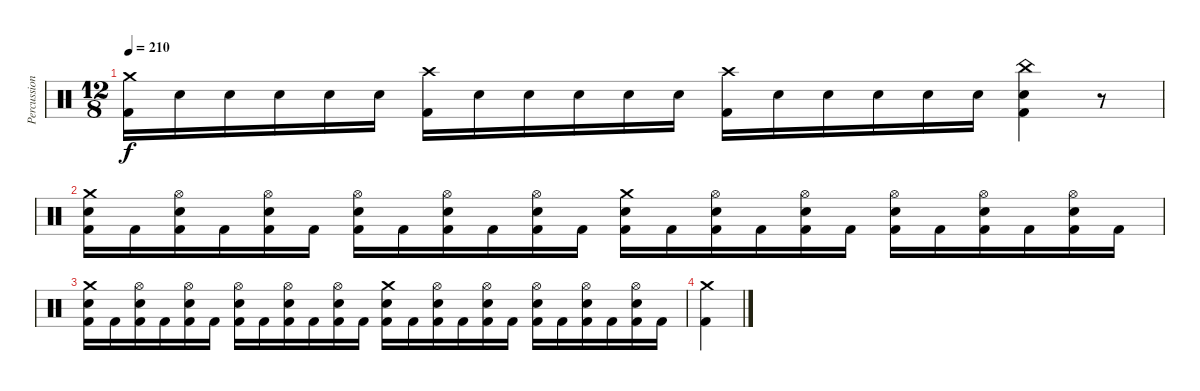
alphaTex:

\track ("Percussion" "Percussion") {instrument percussion}
\staff {score}
\articulation defaults
\ts (12 8)
\tempo 210
\clef neutral
\ks c
("Crash medium (hit)" "Kick (hit) 2").16{dy f} "Electric Snare (hit)".16 "Electric Snare (hit)".16 "Electric Snare (hit)".16 "Electric Snare (hit)".16 "Electric Snare (hit)".16 ("Crash high (hit)" "Kick (hit) 2").16 "Electric Snare (hit)".16 "Electric Snare (hit)".16 "Electric Snare (hit)".16 "Electric Snare (hit)".16 "Electric Snare (hit)".16 ("Crash high (hit)" "Kick (hit) 2").16 "Electric Snare (hit)".16 "Electric Snare (hit)".16 "Electric Snare (hit)".16 "Electric Snare (hit)".16 "Electric Snare (hit)".16 ("Electric Snare (hit)" "China (hit)" "Kick (hit) 2").4 r.8 |
("Crash medium (hit)" "Electric Snare (hit)" "Kick (hit) 2").16 "Kick (hit) 2".16 ("Hi-Hat (open)" "Electric Snare (hit)" "Kick (hit) 2").16 "Kick (hit) 2".16 ("Hi-Hat (open)" "Electric Snare (hit)" "Kick (hit) 2").16 "Kick (hit) 2".16 ("Hi-Hat (open)" "Electric Snare (hit)" "Kick (hit) 2").16 "Kick (hit) 2".16 ("Hi-Hat (open)" "Electric Snare (hit)" "Kick (hit) 2").16 "Kick (hit) 2".16 ("Hi-Hat (open)" "Electric Snare (hit)" "Kick (hit) 2").16 "Kick (hit) 2".16 ("Crash medium (hit)" "Electric Snare (hit)" "Kick (hit) 2").16 "Kick (hit) 2".16 ("Hi-Hat (open)" "Electric Snare (hit)" "Kick (hit) 2").16 "Kick (hit) 2".16 ("Hi-Hat (open)" "Electric Snare (hit)" "Kick (hit) 2").16 "Kick (hit) 2".16 ("Hi-Hat (open)" "Electric Snare (hit)" "Kick (hit) 2").16 "Kick (hit) 2".16 ("Hi-Hat (open)" "Electric Snare (hit)" "Kick (hit) 2").16 "Kick (hit) 2".16 ("Hi-Hat (open)" "Electric Snare (hit)" "Kick (hit) 2").16 "Kick (hit) 2".16 |
("Crash medium (hit)" "Electric Snare (hit)" "Kick (hit) 2").16 "Kick (hit) 2".16 ("Hi-Hat (open)" "Electric Snare (hit)" "Kick (hit) 2").16 "Kick (hit) 2".16 ("Hi-Hat (open)" "Electric Snare (hit)" "Kick (hit) 2").16 "Kick (hit) 2".16 ("Hi-Hat (open)" "Electric Snare (hit)" "Kick (hit) 2").16 "Kick (hit) 2".16 ("Hi-Hat (open)" "Electric Snare (hit)" "Kick (hit) 2").16 "Kick (hit) 2".16 ("Hi-Hat (open)" "Electric Snare (hit)" "Kick (hit) 2").16 "Kick (hit) 2".16 ("Crash medium (hit)" "Electric Snare (hit)" "Kick (hit) 2").16 "Kick (hit) 2".16 ("Hi-Hat (open)" "Electric Snare (hit)" "Kick (hit) 2").16 "Kick (hit) 2".16 ("Hi-Hat (open)" "Electric Snare (hit)" "Kick (hit) 2").16 "Kick (hit) 2".16 ("Hi-Hat (open)" "Electric Snare (hit)" "Kick (hit) 2").16 "Kick (hit) 2".16 ("Hi-Hat (open)" "Electric Snare (hit)" "Kick (hit) 2").16 "Kick (hit) 2".16 ("Hi-Hat (open)" "Electric Snare (hit)" "Kick (hit) 2").16 "Kick (hit) 2".16 |
("Crash medium (hit)"{x} "Kick (hit) 2").4
